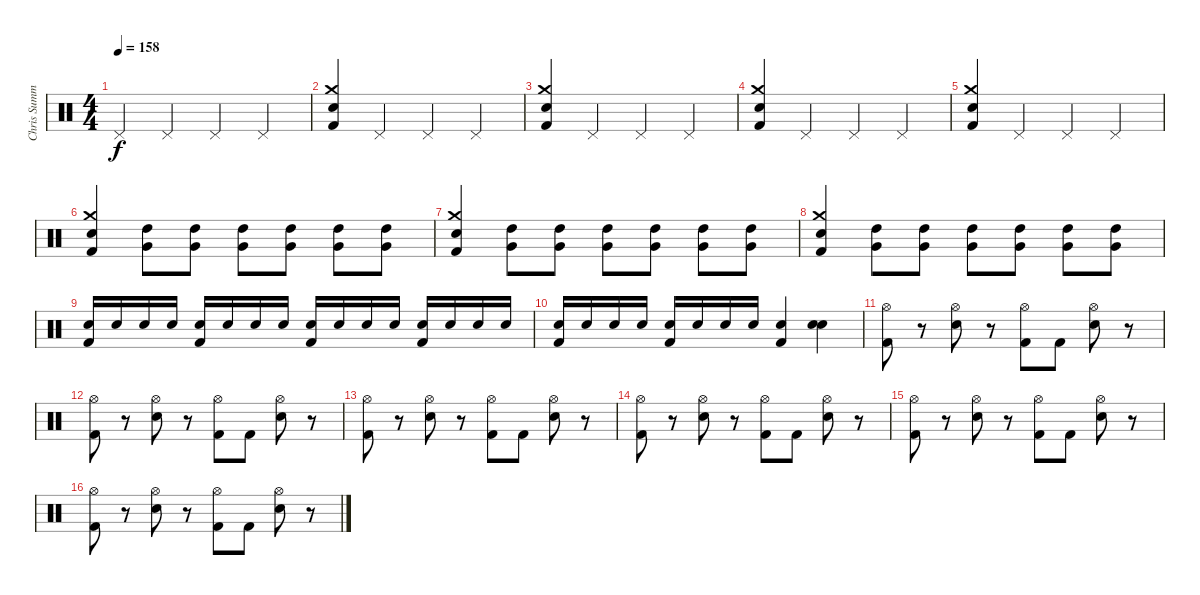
\track ("Chris Summers" "Chris Summ") {instrument percussion}
\staff {score}
\articulation defaults
\ts (4 4)
\tempo 158
\clef neutral
\ks c "Pedal Hi-Hat (hit)".4{dy f} "Pedal Hi-Hat (hit)".4 "Pedal Hi-Hat (hit)".4 "Pedal Hi-Hat (hit)".4
|
("Kick (hit) 2" "Crash medium (hit)" "Electric Snare (hit)").4 "Pedal Hi-Hat (hit)".4 "Pedal Hi-Hat (hit)".4 "Pedal Hi-Hat (hit)".4 |
("Kick (hit) 2" "Crash medium (hit)" "Electric Snare (hit)").4 "Pedal Hi-Hat (hit)".4 "Pedal Hi-Hat (hit)".4 "Pedal Hi-Hat (hit)".4 |
("Kick (hit) 2" "Crash medium (hit)" "Electric Snare (hit)").4 "Pedal Hi-Hat (hit)".4 "Pedal Hi-Hat (hit)".4 "Pedal Hi-Hat (hit)".4 |
("Kick (hit) 2" "Crash medium (hit)" "Electric Snare (hit)").4 "Pedal Hi-Hat (hit)".4 "Pedal Hi-Hat (hit)".4 "Pedal Hi-Hat (hit)".4 |
("Kick (hit) 2" "Crash medium (hit)" "Electric Snare (hit)").4 ("Very Low Tom (hit)" "High Tom (hit)").8 ("Very Low Tom (hit)" "High Tom (hit)").8 ("Very Low Tom (hit)" "High Tom (hit)").8 ("Very Low Tom (hit)" "High Tom (hit)").8 ("Very Low Tom (hit)" "High Tom (hit)").8 ("Very Low Tom (hit)" "High Tom (hit)").8 |
("Kick (hit) 2" "Crash medium (hit)" "Electric Snare (hit)").4 ("Very Low Tom (hit)" "High Tom (hit)").8 ("Very Low Tom (hit)" "High Tom (hit)").8 ("Very Low Tom (hit)" "High Tom (hit)").8 ("Very Low Tom (hit)" "High Tom (hit)").8 ("Very Low Tom (hit)" "High Tom (hit)").8 ("Very Low Tom (hit)" "High Tom (hit)").8 |
("Kick (hit) 2" "Crash medium (hit)" "Electric Snare (hit)").4 ("Very Low Tom (hit)" "High Tom (hit)").8 ("Very Low Tom (hit)" "High Tom (hit)").8 ("Very Low Tom (hit)" "High Tom (hit)").8 ("Very Low Tom (hit)" "High Tom (hit)").8 ("Very Low Tom (hit)" "High Tom (hit)").8 ("Very Low Tom (hit)" "High Tom (hit)").8 |
("Kick (hit) 2" "Electric Snare (hit)").16 "Electric Snare (hit)".16 "Electric Snare (hit)".16 "Electric Snare (hit)".16 ("Kick (hit) 2" "Electric Snare (hit)").16 "Electric Snare (hit)".16 "Electric Snare (hit)".16 "Electric Snare (hit)".16 ("Kick (hit) 2" "Electric Snare (hit)").16 "Electric Snare (hit)".16 "Electric Snare (hit)".16 "Electric Snare (hit)".16 ("Kick (hit) 2" "Electric Snare (hit)").16 "Electric Snare (hit)".16 "Electric Snare (hit)".16 "Electric Snare (hit)".16 |
("Kick (hit) 2" "Electric Snare (hit)").16 "Electric Snare (hit)".16 "Electric Snare (hit)".16 "Electric Snare (hit)".16 ("Kick (hit) 2" "Electric Snare (hit)").16 "Electric Snare (hit)".16 "Electric Snare (hit)".16 "Electric Snare (hit)".16 ("Kick (hit) 2" "Electric Snare (hit)").4 ("Electric Snare (hit)" "Electric Snare (hit)").4 |
("Hi-Hat (open)" "Kick (hit) 2").8 r.8 ("Hi-Hat (open)" "Electric Snare (hit)").8 r.8 ("Hi-Hat (open)" "Kick (hit) 2").8 "Kick (hit) 2".8 ("Hi-Hat (open)" "Electric Snare (hit)").8 r.8 |
("Hi-Hat (open)" "Kick (hit) 2").8 r.8 ("Hi-Hat (open)" "Electric Snare (hit)").8 r.8 ("Hi-Hat (open)" "Kick (hit) 2").8 "Kick (hit) 2".8 ("Hi-Hat (open)" "Electric Snare (hit)").8 r.8 |
("Hi-Hat (open)" "Kick (hit) 2").8 r.8 ("Hi-Hat (open)" "Electric Snare (hit)").8 r.8 ("Hi-Hat (open)" "Kick (hit) 2").8 "Kick (hit) 2".8 ("Hi-Hat (open)" "Electric Snare (hit)").8 r.8 |
("Hi-Hat (open)" "Kick (hit) 2").8 r.8 ("Hi-Hat (open)" "Electric Snare (hit)").8 r.8 ("Hi-Hat (open)" "Kick (hit) 2").8 "Kick (hit) 2".8 ("Hi-Hat (open)" "Electric Snare (hit)").8 r.8 |
("Hi-Hat (open)" "Kick (hit) 2").8 r.8 ("Hi-Hat (open)" "Electric Snare (hit)").8 r.8 ("Hi-Hat (open)" "Kick (hit) 2").8 "Kick (hit) 2".8 ("Hi-Hat (open)" "Electric Snare (hit)").8 r.8 |
("Hi-Hat (open)" "Kick (hit) 2").8 r.8 ("Hi-Hat (open)" "Electric Snare (hit)").8 r.8 ("Hi-Hat (open)" "Kick (hit) 2").8 "Kick (hit) 2".8 ("Hi-Hat (open)" "Electric Snare (hit)").8 r.8
